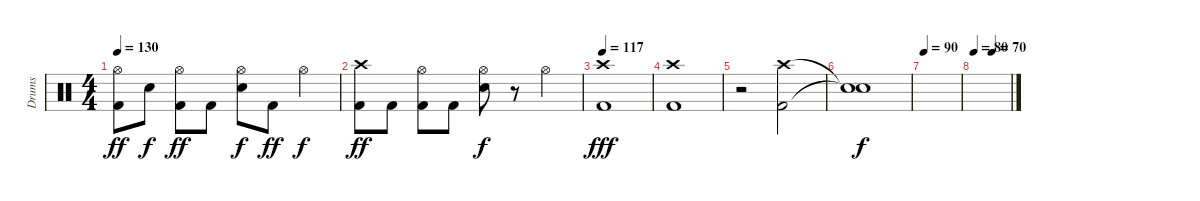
\track ("Drums" "Drums") {instrument percussion}
\staff {score}
\articulation defaults
\ts (4 4)
\tempo 130
\clef neutral
\ks c
("Hi-Hat (open)" "Kick (hit) 2").8{dy ff} "Snare (hit) 2".8{dy f} ("Hi-Hat (open)" "Kick (hit) 2").8{dy ff} "Kick (hit) 2".8 ("Hi-Hat (open)" "Snare (hit) 2").8{dy f} "Kick (hit) 2".8{dy ff} "Hi-Hat (open)".4{dy f} |
("Crash high (hit)" "Kick (hit) 2").8{dy ff} "Kick (hit) 2".8 ("Hi-Hat (open)" "Kick (hit) 2").8 "Kick (hit) 2".8 ("Hi-Hat (open)" "Snare (hit) 2").8{dy f} r.8 "Hi-Hat (open)".4 |
\tempo 110
\tempo 117
("Crash high (hit)" "Kick (hit) 2").1{dy fff} |
("Crash high (hit)" "Kick (hit) 2").1 |
r.2 ("Crash high (hit)" "Kick (hit) 2").2 |
("Snare (hit)"{t} "Snare (hit)"{t}).1{dy f} |
\tempo 90
|
\tempo 80
\tempo (70 0.5)
